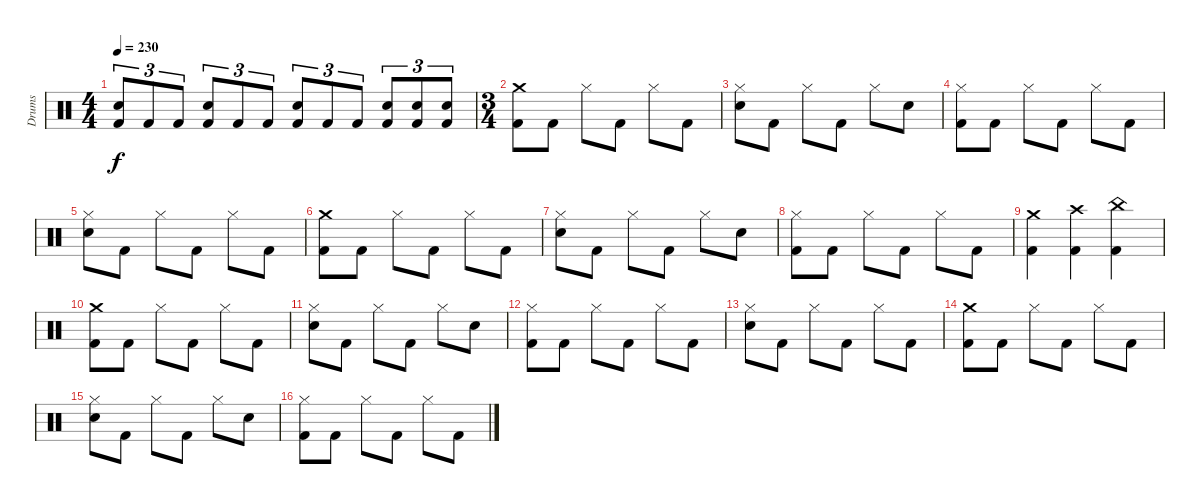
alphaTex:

\track ("Drums" "Drums") {instrument percussion}
\staff {score}
\articulation defaults
\ts (4 4)
\tempo 230
\clef neutral
\ks c
("Kick (hit) 2" "Snare (hit) 2").8{tu (3 2) dy f} "Kick (hit) 2".8{tu (3 2)} "Kick (hit) 2".8{tu (3 2)} ("Kick (hit) 2" "Snare (hit) 2").8{tu (3 2)} "Kick (hit) 2".8{tu (3 2)} "Kick (hit) 2".8{tu (3 2)} ("Kick (hit) 2" "Snare (hit) 2").8{tu (3 2)} "Kick (hit) 2".8{tu (3 2)} "Kick (hit) 2".8{tu (3 2)} ("Kick (hit) 2" "Snare (hit) 2").8{tu (3 2)} ("Kick (hit) 2" "Snare (hit) 2").8{tu (3 2)} ("Kick (hit) 2" "Snare (hit) 2").8{tu (3 2)} |
\ts (3 4)
("Kick (hit) 2" "Crash medium (hit)").8 "Kick (hit) 2".8 "Hi-Hat (closed)".8 "Kick (hit) 2".8 "Hi-Hat (closed)".8 "Kick (hit) 2".8 |
("Snare (hit) 2" "Hi-Hat (closed)").8 "Kick (hit) 2".8 "Hi-Hat (closed)".8 "Kick (hit) 2".8 "Hi-Hat (closed)".8 "Snare (hit) 2".8 |
("Kick (hit) 2" "Hi-Hat (closed)").8 "Kick (hit) 2".8 "Hi-Hat (closed)".8 "Kick (hit) 2".8 "Hi-Hat (closed)".8 "Kick (hit) 2".8 |
("Snare (hit) 2" "Hi-Hat (closed)").8 "Kick (hit) 2".8 "Hi-Hat (closed)".8 "Kick (hit) 2".8 "Hi-Hat (closed)".8 "Kick (hit) 2".8 |
("Kick (hit) 2" "Crash medium (hit)").8 "Kick (hit) 2".8 "Hi-Hat (closed)".8 "Kick (hit) 2".8 "Hi-Hat (closed)".8 "Kick (hit) 2".8 |
("Snare (hit) 2" "Hi-Hat (closed)").8 "Kick (hit) 2".8 "Hi-Hat (closed)".8 "Kick (hit) 2".8 "Hi-Hat (closed)".8 "Snare (hit) 2".8 |
("Kick (hit) 2" "Hi-Hat (closed)").8 "Kick (hit) 2".8 "Hi-Hat (closed)".8 "Kick (hit) 2".8 "Hi-Hat (closed)".8 "Kick (hit) 2".8 |
("Kick (hit) 2" "Crash medium (hit)").4 ("Kick (hit) 2" "Crash high (hit)").4 ("Kick (hit) 2" "China (hit)").4 |
("Kick (hit) 2" "Crash medium (hit)").8 "Kick (hit) 2".8 "Hi-Hat (closed)".8 "Kick (hit) 2".8 "Hi-Hat (closed)".8 "Kick (hit) 2".8 |
("Snare (hit) 2" "Hi-Hat (closed)").8 "Kick (hit) 2".8 "Hi-Hat (closed)".8 "Kick (hit) 2".8 "Hi-Hat (closed)".8 "Snare (hit) 2".8 |
("Kick (hit) 2" "Hi-Hat (closed)").8 "Kick (hit) 2".8 "Hi-Hat (closed)".8 "Kick (hit) 2".8 "Hi-Hat (closed)".8 "Kick (hit) 2".8 |
("Snare (hit) 2" "Hi-Hat (closed)").8 "Kick (hit) 2".8 "Hi-Hat (closed)".8 "Kick (hit) 2".8 "Hi-Hat (closed)".8 "Kick (hit) 2".8 |
("Kick (hit) 2" "Crash medium (hit)").8 "Kick (hit) 2".8 "Hi-Hat (closed)".8 "Kick (hit) 2".8 "Hi-Hat (closed)".8 "Kick (hit) 2".8 |
("Snare (hit) 2" "Hi-Hat (closed)").8 "Kick (hit) 2".8 "Hi-Hat (closed)".8 "Kick (hit) 2".8 "Hi-Hat (closed)".8 "Snare (hit) 2".8 |
("Kick (hit) 2" "Hi-Hat (closed)").8 "Kick (hit) 2".8 "Hi-Hat (closed)".8 "Kick (hit) 2".8 "Hi-Hat (closed)".8 "Kick (hit) 2".8
